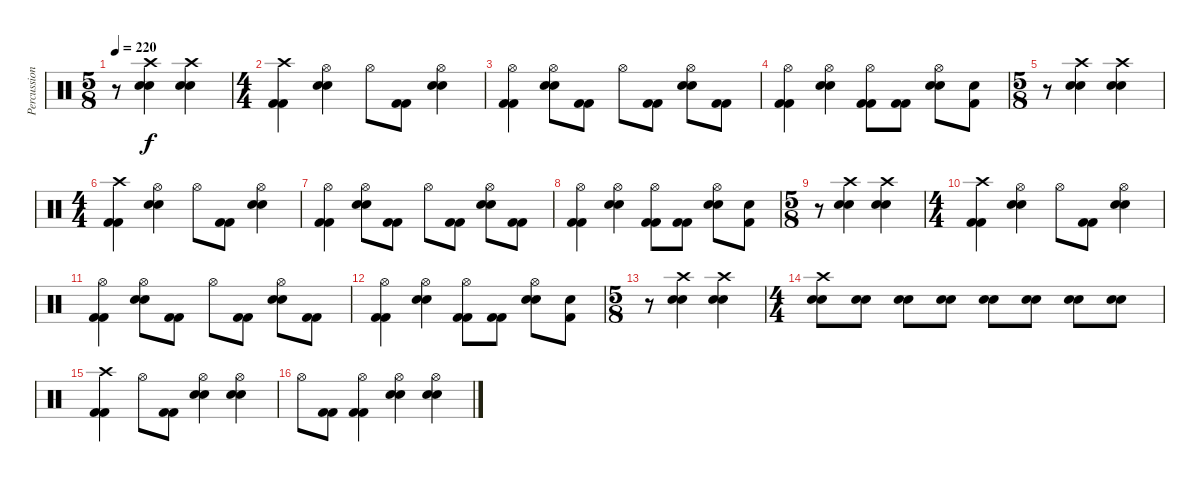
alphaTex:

\track ("Percussion" "Percussion") {instrument percussion}
\staff {score}
\articulation defaults
\ts (5 8)
\tempo 220
\clef neutral
\ks c
r.8{dy f} ("Crash high (hit)" "Electric Snare (hit)" "Electric Snare (hit)").4 ("Crash high (hit)" "Electric Snare (hit)" "Electric Snare (hit)").4 |
\ts (4 4)
("Crash high (hit)" "Kick (hit) 2" "Kick (hit) 2").4 ("Hi-Hat (open)" "Electric Snare (hit)" "Electric Snare (hit)").4 "Hi-Hat (open)".8 ("Kick (hit) 2" "Kick (hit) 2").8 ("Hi-Hat (open)" "Electric Snare (hit)" "Electric Snare (hit)").4 |
("Hi-Hat (open)" "Kick (hit) 2" "Kick (hit) 2").4 ("Hi-Hat (open)" "Electric Snare (hit)" "Electric Snare (hit)").8 ("Kick (hit) 2" "Kick (hit) 2").8 "Hi-Hat (open)".8 ("Kick (hit) 2" "Kick (hit) 2").8 ("Hi-Hat (open)" "Electric Snare (hit)" "Electric Snare (hit)").8 ("Kick (hit) 2" "Kick (hit) 2").8 |
("Hi-Hat (open)" "Kick (hit) 2" "Kick (hit) 2").4 ("Hi-Hat (open)" "Electric Snare (hit)" "Electric Snare (hit)").4 ("Hi-Hat (open)" "Kick (hit) 2" "Kick (hit) 2").8 ("Kick (hit) 2" "Kick (hit) 2").8 ("Hi-Hat (open)" "Electric Snare (hit)" "Electric Snare (hit)").8 ("Kick (hit) 2" "Snare (hit)").8 |
\ts (5 8)
r.8 ("Crash high (hit)" "Electric Snare (hit)" "Electric Snare (hit)").4 ("Crash high (hit)" "Electric Snare (hit)" "Electric Snare (hit)").4 |
\ts (4 4)
("Crash high (hit)" "Kick (hit) 2" "Kick (hit) 2").4 ("Hi-Hat (open)" "Electric Snare (hit)" "Electric Snare (hit)").4 "Hi-Hat (open)".8 ("Kick (hit) 2" "Kick (hit) 2").8 ("Hi-Hat (open)" "Electric Snare (hit)" "Electric Snare (hit)").4 |
("Hi-Hat (open)" "Kick (hit) 2" "Kick (hit) 2").4 ("Hi-Hat (open)" "Electric Snare (hit)" "Electric Snare (hit)").8 ("Kick (hit) 2" "Kick (hit) 2").8 "Hi-Hat (open)".8 ("Kick (hit) 2" "Kick (hit) 2").8 ("Hi-Hat (open)" "Electric Snare (hit)" "Electric Snare (hit)").8 ("Kick (hit) 2" "Kick (hit) 2").8 |
("Hi-Hat (open)" "Kick (hit) 2" "Kick (hit) 2").4 ("Hi-Hat (open)" "Electric Snare (hit)" "Electric Snare (hit)").4 ("Hi-Hat (open)" "Kick (hit) 2" "Kick (hit) 2").8 ("Kick (hit) 2" "Kick (hit) 2").8 ("Hi-Hat (open)" "Electric Snare (hit)" "Electric Snare (hit)").8 ("Kick (hit) 2" "Snare (hit)").8 |
\ts (5 8)
r.8 ("Crash high (hit)" "Electric Snare (hit)" "Electric Snare (hit)").4 ("Crash high (hit)" "Electric Snare (hit)" "Electric Snare (hit)").4 |
\ts (4 4)
("Crash high (hit)" "Kick (hit) 2" "Kick (hit) 2").4 ("Hi-Hat (open)" "Electric Snare (hit)" "Electric Snare (hit)").4 "Hi-Hat (open)".8 ("Kick (hit) 2" "Kick (hit) 2").8 ("Hi-Hat (open)" "Electric Snare (hit)" "Electric Snare (hit)").4 |
("Hi-Hat (open)" "Kick (hit) 2" "Kick (hit) 2").4 ("Hi-Hat (open)" "Electric Snare (hit)" "Electric Snare (hit)").8 ("Kick (hit) 2" "Kick (hit) 2").8 "Hi-Hat (open)".8 ("Kick (hit) 2" "Kick (hit) 2").8 ("Hi-Hat (open)" "Electric Snare (hit)" "Electric Snare (hit)").8 ("Kick (hit) 2" "Kick (hit) 2").8 |
("Hi-Hat (open)" "Kick (hit) 2" "Kick (hit) 2").4 ("Hi-Hat (open)" "Electric Snare (hit)" "Electric Snare (hit)").4 ("Hi-Hat (open)" "Kick (hit) 2" "Kick (hit) 2").8 ("Kick (hit) 2" "Kick (hit) 2").8 ("Hi-Hat (open)" "Electric Snare (hit)" "Electric Snare (hit)").8 ("Kick (hit) 2" "Snare (hit)").8 |
\ts (5 8)
r.8 ("Crash high (hit)" "Electric Snare (hit)" "Electric Snare (hit)").4 ("Crash high (hit)" "Electric Snare (hit)" "Electric Snare (hit)").4 |
\ts (4 4)
("Crash high (hit)" "Electric Snare (hit)" "Electric Snare (hit)").8 ("Electric Snare (hit)" "Electric Snare (hit)").8 ("Electric Snare (hit)" "Electric Snare (hit)").8 ("Electric Snare (hit)" "Electric Snare (hit)").8 ("Electric Snare (hit)" "Electric Snare (hit)").8 ("Electric Snare (hit)" "Electric Snare (hit)").8 ("Electric Snare (hit)" "Electric Snare (hit)").8 ("Electric Snare (hit)" "Electric Snare (hit)").8 |
("Crash high (hit)" "Kick (hit) 2" "Kick (hit) 2").4 "Hi-Hat (open)".8 ("Kick (hit) 2" "Kick (hit) 2").8 ("Hi-Hat (open)" "Electric Snare (hit)" "Electric Snare (hit)").4 ("Hi-Hat (open)" "Electric Snare (hit)" "Electric Snare (hit)").4 |
"Hi-Hat (open)".8 ("Kick (hit) 2" "Kick (hit) 2").8 ("Hi-Hat (open)" "Kick (hit) 2" "Kick (hit) 2").4 ("Hi-Hat (open)" "Electric Snare (hit)" "Electric Snare (hit)").4 ("Hi-Hat (open)" "Electric Snare (hit)" "Electric Snare (hit)").4
